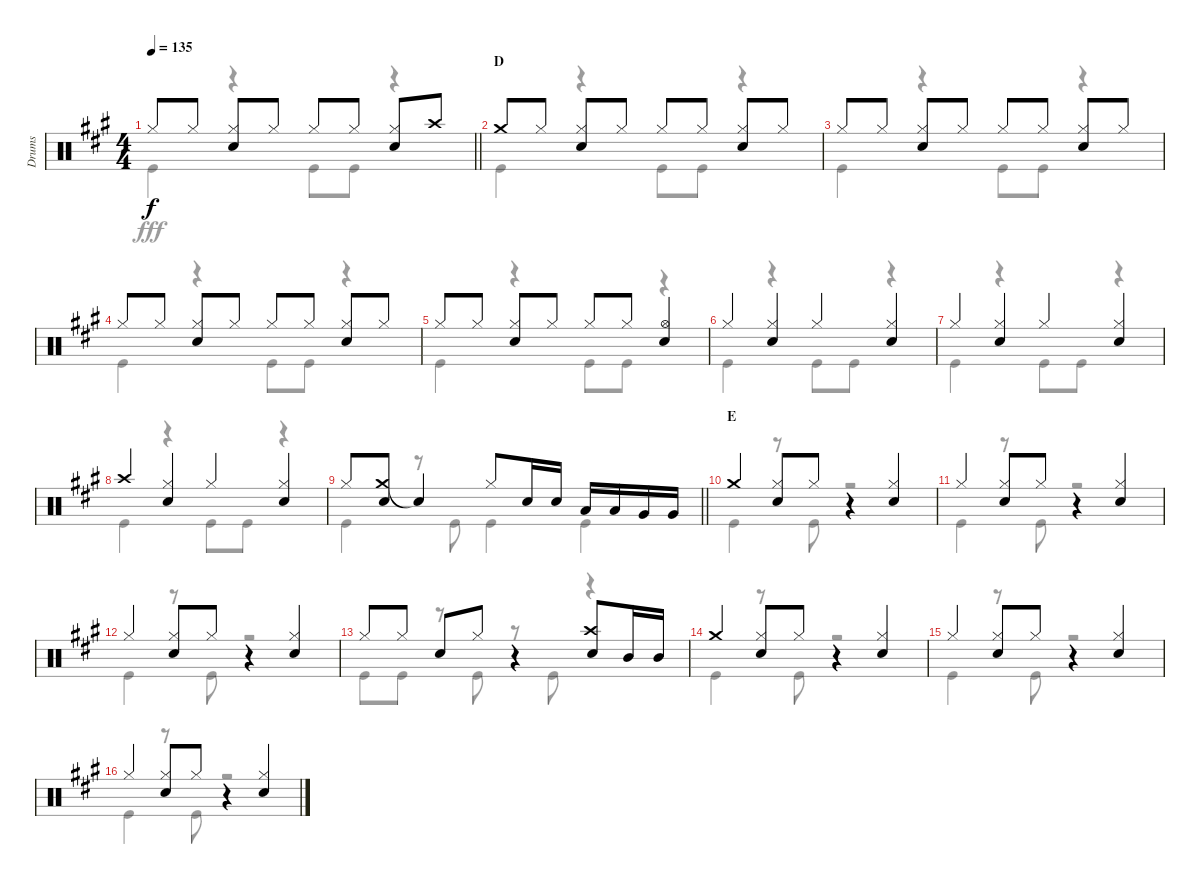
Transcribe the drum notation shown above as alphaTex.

\track ("Drums" "Drums") {instrument percussion}
\staff {score}
\articulation defaults
\voice
\ts (4 4)
\tempo 135
\clef neutral
\barLineRight lightlight
\ks a "Hi-Hat (closed)".8{dy f} "Hi-Hat (closed)".8
("Hi-Hat (closed)" "Snare (hit) 2").8 "Hi-Hat (closed)".8 "Hi-Hat (closed)".8 "Hi-Hat (closed)".8 ("Hi-Hat (closed)" "Snare (hit) 2").8 "Crash high (hit)".8 |
\section ("" "D")
"Crash medium (hit)".8 "Hi-Hat (closed)".8 ("Hi-Hat (closed)" "Snare (hit) 2").8 "Hi-Hat (closed)".8 "Hi-Hat (closed)".8 "Hi-Hat (closed)".8 ("Hi-Hat (closed)" "Snare (hit) 2").8 "Hi-Hat (closed)".8 |
"Hi-Hat (closed)".8 "Hi-Hat (closed)".8 ("Hi-Hat (closed)" "Snare (hit) 2").8 "Hi-Hat (closed)".8 "Hi-Hat (closed)".8 "Hi-Hat (closed)".8 ("Hi-Hat (closed)" "Snare (hit) 2").8 "Hi-Hat (closed)".8 |
"Hi-Hat (closed)".8 "Hi-Hat (closed)".8 ("Hi-Hat (closed)" "Snare (hit) 2").8 "Hi-Hat (closed)".8 "Hi-Hat (closed)".8 "Hi-Hat (closed)".8 ("Hi-Hat (closed)" "Snare (hit) 2").8 "Hi-Hat (closed)".8 |
"Hi-Hat (closed)".8 "Hi-Hat (closed)".8 ("Hi-Hat (closed)" "Snare (hit) 2").8 "Hi-Hat (closed)".8 "Hi-Hat (closed)".8 "Hi-Hat (closed)".8 ("Hi-Hat (open)" "Snare (hit) 2").4 |
"Hi-Hat (closed)".4 ("Hi-Hat (closed)" "Snare (hit) 2").4 "Hi-Hat (closed)".4 ("Hi-Hat (closed)" "Snare (hit) 2").4 |
"Hi-Hat (closed)".4 ("Hi-Hat (closed)" "Snare (hit) 2").4 "Hi-Hat (closed)".4 ("Hi-Hat (closed)" "Snare (hit) 2").4 |
"Crash high (hit)".4 ("Hi-Hat (closed)" "Snare (hit) 2").4 "Hi-Hat (closed)".4 ("Hi-Hat (closed)" "Snare (hit) 2").4 |
\barLineRight lightlight "Hi-Hat (closed)".8
("Crash medium (hit)" "Snare (hit) 2").8 "Snare (hit)"{t}.4 "Hi-Hat (closed)".8 "Snare (hit) 2".16 "Snare (hit) 2".16 "Low Tom (hit)".16 "Low Tom (hit)".16 "Very Low Tom (hit)".16 "Very Low Tom (hit)".16 |
\section ("" "E")
"Crash medium (hit)".4 ("Hi-Hat (closed)" "Snare (hit) 2").8 "Hi-Hat (closed)".8 r.4 ("Hi-Hat (closed)" "Snare (hit) 2").4 |
"Hi-Hat (closed)".4 ("Hi-Hat (closed)" "Snare (hit) 2").8 "Hi-Hat (closed)".8 r.4 ("Hi-Hat (closed)" "Snare (hit) 2").4 |
"Hi-Hat (closed)".4 ("Hi-Hat (closed)" "Snare (hit) 2").8 "Hi-Hat (closed)".8 r.4 ("Hi-Hat (closed)" "Snare (hit) 2").4 |
"Hi-Hat (closed)".8 "Hi-Hat (closed)".8 "Snare (hit) 2".8 "Hi-Hat (closed)".8 r.4 ("Crash high (hit)" "Snare (hit) 2").8 "Mid Tom (hit)".16 "Mid Tom (hit)".16 |
"Crash medium (hit)".4 ("Hi-Hat (closed)" "Snare (hit) 2").8 "Hi-Hat (closed)".8 r.4 ("Hi-Hat (closed)" "Snare (hit) 2").4 |
"Hi-Hat (closed)".4 ("Hi-Hat (closed)" "Snare (hit) 2").8 "Hi-Hat (closed)".8 r.4 ("Hi-Hat (closed)" "Snare (hit) 2").4 |
"Hi-Hat (closed)".4 ("Hi-Hat (closed)" "Snare (hit) 2").8 "Hi-Hat (closed)".8 r.4 ("Hi-Hat (closed)" "Snare (hit) 2").4
\voice
\clef neutral
\ottava regular
\simile none
\barLineRight lightlight
\ks a "Kick (hit)".4{dy fff}
r.4 "Kick (hit)".8 "Kick (hit)".8 r.4 |
"Kick (hit)".4 r.4 "Kick (hit)".8 "Kick (hit)".8 r.4 |
"Kick (hit)".4 r.4 "Kick (hit)".8 "Kick (hit)".8 r.4 |
"Kick (hit)".4 r.4 "Kick (hit)".8 "Kick (hit)".8 r.4 |
"Kick (hit)".4 r.4 "Kick (hit)".8 "Kick (hit)".8 r.4 |
"Kick (hit)".4 r.4 "Kick (hit)".8 "Kick (hit)".8 r.4 |
"Kick (hit)".4 r.4 "Kick (hit)".8 "Kick (hit)".8 r.4 |
"Kick (hit)".4 r.4 "Kick (hit)".8 "Kick (hit)".8 r.4 |
\barLineRight lightlight "Kick (hit)".4
r.8 "Kick (hit)".8 "Kick (hit)".4 "Kick (hit)".4 |
"Kick (hit)".4 r.8 "Kick (hit)".8 r.2 |
"Kick (hit)".4 r.8 "Kick (hit)".8 r.2 |
"Kick (hit)".4 r.8 "Kick (hit)".8 r.2 |
"Kick (hit)".8 "Kick (hit)".8 r.8 "Kick (hit)".8 r.8 "Kick (hit)".8 r.4 |
"Kick (hit)".4 r.8 "Kick (hit)".8 r.2 |
"Kick (hit)".4 r.8 "Kick (hit)".8 r.2 |
"Kick (hit)".4 r.8 "Kick (hit)".8 r.2
